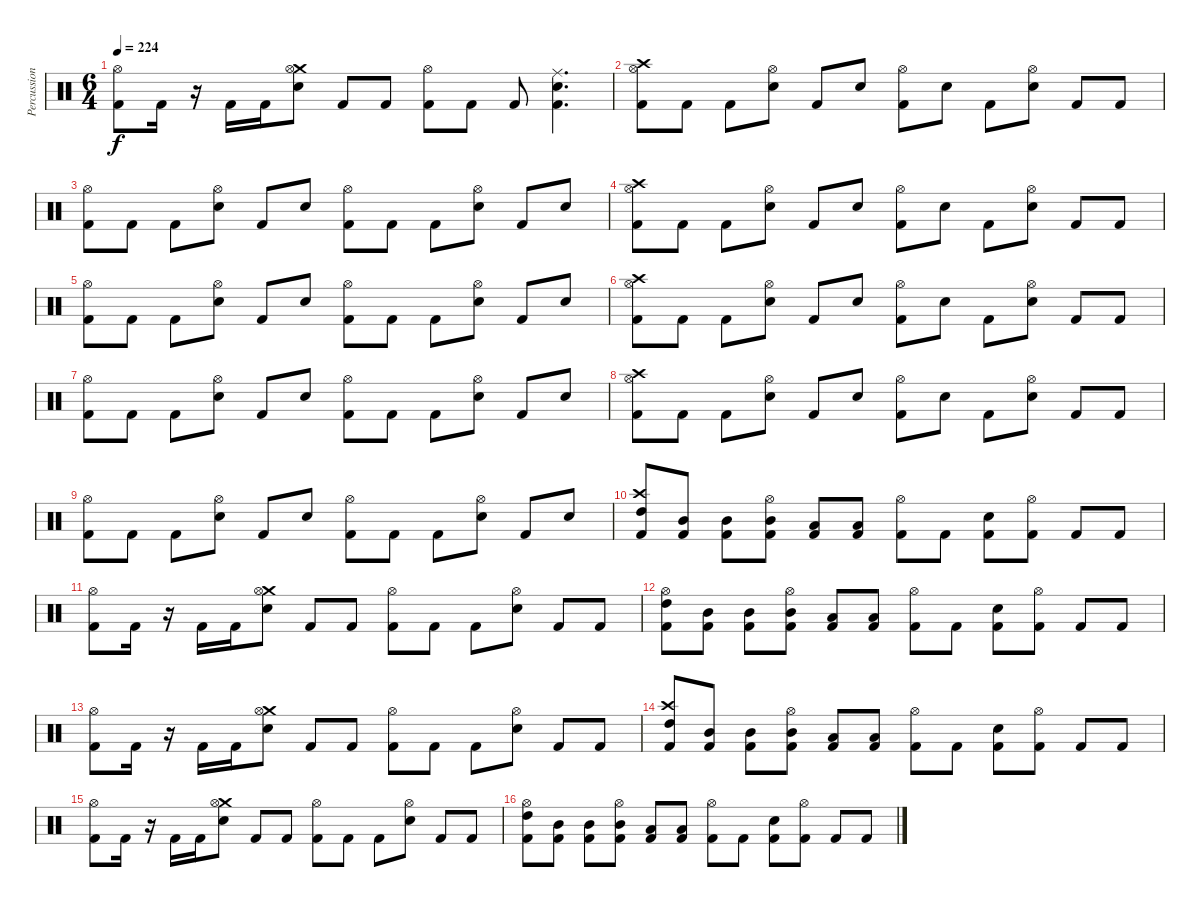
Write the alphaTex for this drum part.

\track ("Percussion" "Percussion") {instrument percussion}
\staff {score}
\articulation defaults
\ts (6 4)
\tempo 224
\clef neutral
\ks c
("Hi-Hat (open)" "Kick (hit) 2").8{dy f} "Kick (hit) 2".16 r.16 "Kick (hit) 2".16 "Kick (hit) 2".16 ("Crash medium (hit)" "Hi-Hat (open)" "Electric Snare (hit)").8 "Kick (hit) 2".8 "Kick (hit) 2".8 ("Hi-Hat (open)" "Kick (hit) 2").8 "Kick (hit) 2".8 "Kick (hit) 2".8 ("Ride (middle)" "Electric Snare (hit)" "Kick (hit) 2").4{d} |
("Crash high (hit)" "Hi-Hat (open)" "Kick (hit) 2").8 "Kick (hit) 2".8 "Kick (hit) 2".8 ("Hi-Hat (open)" "Electric Snare (hit)").8 "Kick (hit) 2".8 "Electric Snare (hit)".8 ("Hi-Hat (open)" "Kick (hit) 2").8 "Electric Snare (hit)".8 "Kick (hit) 2".8 ("Hi-Hat (open)" "Electric Snare (hit)").8 "Kick (hit) 2".8 "Kick (hit) 2".8 |
("Hi-Hat (open)" "Kick (hit) 2").8 "Kick (hit) 2".8 "Kick (hit) 2".8 ("Hi-Hat (open)" "Electric Snare (hit)").8 "Kick (hit) 2".8 "Electric Snare (hit)".8 ("Hi-Hat (open)" "Kick (hit) 2").8 "Kick (hit) 2".8 "Kick (hit) 2".8 ("Hi-Hat (open)" "Electric Snare (hit)").8 "Kick (hit) 2".8 "Electric Snare (hit)".8 |
("Crash high (hit)" "Hi-Hat (open)" "Kick (hit) 2").8 "Kick (hit) 2".8 "Kick (hit) 2".8 ("Hi-Hat (open)" "Electric Snare (hit)").8 "Kick (hit) 2".8 "Electric Snare (hit)".8 ("Hi-Hat (open)" "Kick (hit) 2").8 "Electric Snare (hit)".8 "Kick (hit) 2".8 ("Hi-Hat (open)" "Electric Snare (hit)").8 "Kick (hit) 2".8 "Kick (hit) 2".8 |
("Hi-Hat (open)" "Kick (hit) 2").8 "Kick (hit) 2".8 "Kick (hit) 2".8 ("Hi-Hat (open)" "Electric Snare (hit)").8 "Kick (hit) 2".8 "Electric Snare (hit)".8 ("Hi-Hat (open)" "Kick (hit) 2").8 "Kick (hit) 2".8 "Kick (hit) 2".8 ("Hi-Hat (open)" "Electric Snare (hit)").8 "Kick (hit) 2".8 "Electric Snare (hit)".8 |
("Crash high (hit)" "Hi-Hat (open)" "Kick (hit) 2").8 "Kick (hit) 2".8 "Kick (hit) 2".8 ("Hi-Hat (open)" "Electric Snare (hit)").8 "Kick (hit) 2".8 "Electric Snare (hit)".8 ("Hi-Hat (open)" "Kick (hit) 2").8 "Electric Snare (hit)".8 "Kick (hit) 2".8 ("Hi-Hat (open)" "Electric Snare (hit)").8 "Kick (hit) 2".8 "Kick (hit) 2".8 |
("Hi-Hat (open)" "Kick (hit) 2").8 "Kick (hit) 2".8 "Kick (hit) 2".8 ("Hi-Hat (open)" "Electric Snare (hit)").8 "Kick (hit) 2".8 "Electric Snare (hit)".8 ("Hi-Hat (open)" "Kick (hit) 2").8 "Kick (hit) 2".8 "Kick (hit) 2".8 ("Hi-Hat (open)" "Electric Snare (hit)").8 "Kick (hit) 2".8 "Electric Snare (hit)".8 |
("Crash high (hit)" "Hi-Hat (open)" "Kick (hit) 2").8 "Kick (hit) 2".8 "Kick (hit) 2".8 ("Hi-Hat (open)" "Electric Snare (hit)").8 "Kick (hit) 2".8 "Electric Snare (hit)".8 ("Hi-Hat (open)" "Kick (hit) 2").8 "Electric Snare (hit)".8 "Kick (hit) 2".8 ("Hi-Hat (open)" "Electric Snare (hit)").8 "Kick (hit) 2".8 "Kick (hit) 2".8 |
("Hi-Hat (open)" "Kick (hit) 2").8 "Kick (hit) 2".8 "Kick (hit) 2".8 ("Hi-Hat (open)" "Electric Snare (hit)").8 "Kick (hit) 2".8 "Electric Snare (hit)".8 ("Hi-Hat (open)" "Kick (hit) 2").8 "Kick (hit) 2".8 "Kick (hit) 2".8 ("Hi-Hat (open)" "Electric Snare (hit)").8 "Kick (hit) 2".8 "Electric Snare (hit)".8 |
("Crash high (hit)" "High Tom (hit)" "Kick (hit) 2").8 ("Mid Tom (hit)" "Kick (hit) 2").8 ("Mid Tom (hit)" "Kick (hit) 2").8 ("Mid Tom (hit)" "Hi-Hat (open)" "Kick (hit) 2").8 ("Low Tom (hit)" "Kick (hit) 2").8 ("Low Tom (hit)" "Kick (hit) 2").8 ("Hi-Hat (open)" "Kick (hit) 2").8 "Kick (hit) 2".8 ("Electric Snare (hit)" "Kick (hit) 2").8 ("Hi-Hat (open)" "Kick (hit) 2").8 "Kick (hit) 2".8 "Kick (hit) 2".8 |
("Hi-Hat (open)" "Kick (hit) 2").8 "Kick (hit) 2".16 r.16 "Kick (hit) 2".16 "Kick (hit) 2".16 ("Crash medium (hit)" "Hi-Hat (open)" "Electric Snare (hit)").8 "Kick (hit) 2".8 "Kick (hit) 2".8 ("Hi-Hat (open)" "Kick (hit) 2").8 "Kick (hit) 2".8 "Kick (hit) 2".8 ("Hi-Hat (open)" "Electric Snare (hit)").8 "Kick (hit) 2".8 "Kick (hit) 2".8 |
("High Tom (hit)" "Hi-Hat (open)" "Kick (hit) 2").8 ("Mid Tom (hit)" "Kick (hit) 2").8 ("Mid Tom (hit)" "Kick (hit) 2").8 ("Mid Tom (hit)" "Hi-Hat (open)" "Kick (hit) 2").8 ("Low Tom (hit)" "Kick (hit) 2").8 ("Low Tom (hit)" "Kick (hit) 2").8 ("Hi-Hat (open)" "Kick (hit) 2").8 "Kick (hit) 2".8 ("Electric Snare (hit)" "Kick (hit) 2").8 ("Hi-Hat (open)" "Kick (hit) 2").8 "Kick (hit) 2".8 "Kick (hit) 2".8 |
("Hi-Hat (open)" "Kick (hit) 2").8 "Kick (hit) 2".16 r.16 "Kick (hit) 2".16 "Kick (hit) 2".16 ("Crash medium (hit)" "Hi-Hat (open)" "Electric Snare (hit)").8 "Kick (hit) 2".8 "Kick (hit) 2".8 ("Hi-Hat (open)" "Kick (hit) 2").8 "Kick (hit) 2".8 "Kick (hit) 2".8 ("Hi-Hat (open)" "Electric Snare (hit)").8 "Kick (hit) 2".8 "Kick (hit) 2".8 |
("Crash high (hit)" "High Tom (hit)" "Kick (hit) 2").8 ("Mid Tom (hit)" "Kick (hit) 2").8 ("Mid Tom (hit)" "Kick (hit) 2").8 ("Mid Tom (hit)" "Hi-Hat (open)" "Kick (hit) 2").8 ("Low Tom (hit)" "Kick (hit) 2").8 ("Low Tom (hit)" "Kick (hit) 2").8 ("Hi-Hat (open)" "Kick (hit) 2").8 "Kick (hit) 2".8 ("Electric Snare (hit)" "Kick (hit) 2").8 ("Hi-Hat (open)" "Kick (hit) 2").8 "Kick (hit) 2".8 "Kick (hit) 2".8 |
("Hi-Hat (open)" "Kick (hit) 2").8 "Kick (hit) 2".16 r.16 "Kick (hit) 2".16 "Kick (hit) 2".16 ("Crash medium (hit)" "Hi-Hat (open)" "Electric Snare (hit)").8 "Kick (hit) 2".8 "Kick (hit) 2".8 ("Hi-Hat (open)" "Kick (hit) 2").8 "Kick (hit) 2".8 "Kick (hit) 2".8 ("Hi-Hat (open)" "Electric Snare (hit)").8 "Kick (hit) 2".8 "Kick (hit) 2".8 |
("High Tom (hit)" "Hi-Hat (open)" "Kick (hit) 2").8 ("Mid Tom (hit)" "Kick (hit) 2").8 ("Mid Tom (hit)" "Kick (hit) 2").8 ("Mid Tom (hit)" "Hi-Hat (open)" "Kick (hit) 2").8 ("Low Tom (hit)" "Kick (hit) 2").8 ("Low Tom (hit)" "Kick (hit) 2").8 ("Hi-Hat (open)" "Kick (hit) 2").8 "Kick (hit) 2".8 ("Electric Snare (hit)" "Kick (hit) 2").8 ("Hi-Hat (open)" "Kick (hit) 2").8 "Kick (hit) 2".8 "Kick (hit) 2".8
